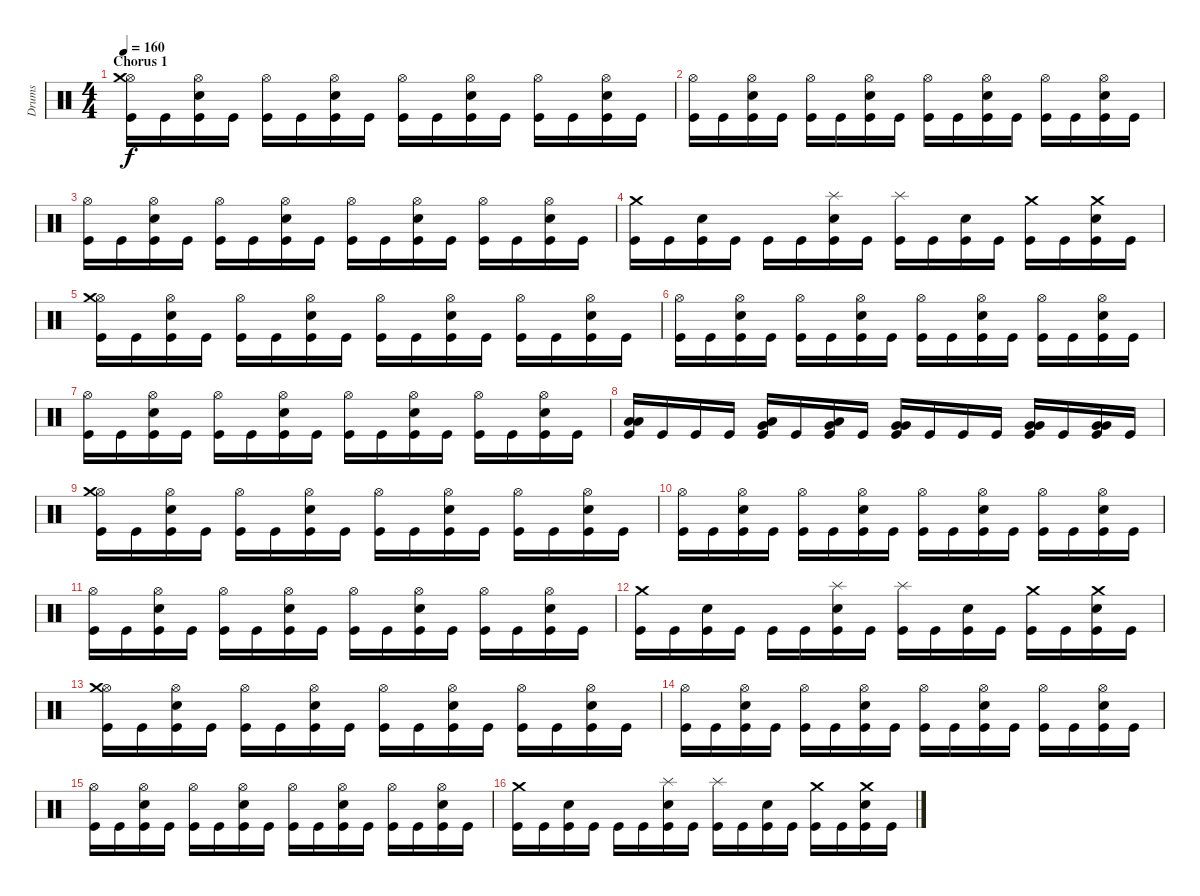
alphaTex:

\track ("Drums" "Drums") {instrument percussion}
\staff {score}
\articulation defaults
\ts (4 4)
\section ("" "Chorus 1")
\tempo 160
\clef neutral
\ks c
("Kick (hit)" "Hi-Hat (open)" "Crash medium (hit)").16{dy f} "Kick (hit)".16 ("Electric Snare (hit)" "Kick (hit)" "Hi-Hat (open)").16 "Kick (hit)".16 ("Kick (hit)" "Hi-Hat (open)").16 "Kick (hit)".16 ("Electric Snare (hit)" "Kick (hit)" "Hi-Hat (open)").16 "Kick (hit)".16 ("Kick (hit)" "Hi-Hat (open)").16 "Kick (hit)".16 ("Electric Snare (hit)" "Kick (hit)" "Hi-Hat (open)").16 "Kick (hit)".16 ("Kick (hit)" "Hi-Hat (open)").16 "Kick (hit)".16 ("Electric Snare (hit)" "Kick (hit)" "Hi-Hat (open)").16 "Kick (hit)".16 |
("Kick (hit)" "Hi-Hat (open)").16 "Kick (hit)".16 ("Electric Snare (hit)" "Kick (hit)" "Hi-Hat (open)").16 "Kick (hit)".16 ("Kick (hit)" "Hi-Hat (open)").16 "Kick (hit)".16 ("Electric Snare (hit)" "Kick (hit)" "Hi-Hat (open)").16 "Kick (hit)".16 ("Kick (hit)" "Hi-Hat (open)").16 "Kick (hit)".16 ("Electric Snare (hit)" "Kick (hit)" "Hi-Hat (open)").16 "Kick (hit)".16 ("Kick (hit)" "Hi-Hat (open)").16 "Kick (hit)".16 ("Electric Snare (hit)" "Kick (hit)" "Hi-Hat (open)").16 "Kick (hit)".16 |
("Kick (hit)" "Hi-Hat (open)").16 "Kick (hit)".16 ("Electric Snare (hit)" "Kick (hit)" "Hi-Hat (open)").16 "Kick (hit)".16 ("Kick (hit)" "Hi-Hat (open)").16 "Kick (hit)".16 ("Electric Snare (hit)" "Kick (hit)" "Hi-Hat (open)").16 "Kick (hit)".16 ("Kick (hit)" "Hi-Hat (open)").16 "Kick (hit)".16 ("Electric Snare (hit)" "Kick (hit)" "Hi-Hat (open)").16 "Kick (hit)".16 ("Kick (hit)" "Hi-Hat (open)").16 "Kick (hit)".16 ("Electric Snare (hit)" "Kick (hit)" "Hi-Hat (open)").16 "Kick (hit)".16 |
("Kick (hit)" "Crash medium (hit)").16 "Kick (hit)".16 ("Electric Snare (hit)" "Kick (hit)").16 "Kick (hit)".16 "Kick (hit)".16 "Kick (hit)".16 ("Electric Snare (hit)" "Kick (hit)" "Splash (hit)").16 "Kick (hit)".16 ("Kick (hit)" "Splash (hit)").16 "Kick (hit)".16 ("Electric Snare (hit)" "Kick (hit)").16 "Kick (hit)".16 ("Kick (hit)" "Crash medium (hit)").16 "Kick (hit)".16 ("Electric Snare (hit)" "Kick (hit)" "Crash medium (hit)").16 "Kick (hit)".16 |
("Kick (hit)" "Hi-Hat (open)" "Crash medium (hit)").16 "Kick (hit)".16 ("Electric Snare (hit)" "Kick (hit)" "Hi-Hat (open)").16 "Kick (hit)".16 ("Kick (hit)" "Hi-Hat (open)").16 "Kick (hit)".16 ("Electric Snare (hit)" "Kick (hit)" "Hi-Hat (open)").16 "Kick (hit)".16 ("Kick (hit)" "Hi-Hat (open)").16 "Kick (hit)".16 ("Electric Snare (hit)" "Kick (hit)" "Hi-Hat (open)").16 "Kick (hit)".16 ("Kick (hit)" "Hi-Hat (open)").16 "Kick (hit)".16 ("Electric Snare (hit)" "Kick (hit)" "Hi-Hat (open)").16 "Kick (hit)".16 |
("Kick (hit)" "Hi-Hat (open)").16 "Kick (hit)".16 ("Electric Snare (hit)" "Kick (hit)" "Hi-Hat (open)").16 "Kick (hit)".16 ("Kick (hit)" "Hi-Hat (open)").16 "Kick (hit)".16 ("Electric Snare (hit)" "Kick (hit)" "Hi-Hat (open)").16 "Kick (hit)".16 ("Kick (hit)" "Hi-Hat (open)").16 "Kick (hit)".16 ("Electric Snare (hit)" "Kick (hit)" "Hi-Hat (open)").16 "Kick (hit)".16 ("Kick (hit)" "Hi-Hat (open)").16 "Kick (hit)".16 ("Electric Snare (hit)" "Kick (hit)" "Hi-Hat (open)").16 "Kick (hit)".16 |
("Kick (hit)" "Hi-Hat (open)").16 "Kick (hit)".16 ("Electric Snare (hit)" "Kick (hit)" "Hi-Hat (open)").16 "Kick (hit)".16 ("Kick (hit)" "Hi-Hat (open)").16 "Kick (hit)".16 ("Electric Snare (hit)" "Kick (hit)" "Hi-Hat (open)").16 "Kick (hit)".16 ("Kick (hit)" "Hi-Hat (open)").16 "Kick (hit)".16 ("Electric Snare (hit)" "Kick (hit)" "Hi-Hat (open)").16 "Kick (hit)".16 ("Kick (hit)" "Hi-Hat (open)").16 "Kick (hit)".16 ("Electric Snare (hit)" "Kick (hit)" "Hi-Hat (open)").16 "Kick (hit)".16 |
("Low Floor Tom (hit)" "Kick (hit)" "Low Floor Tom (hit)").16 "Kick (hit)".16 "Kick (hit)".16 "Kick (hit)".16 ("Low Floor Tom (hit)" "Kick (hit)" "Very Low Tom (hit)").16 "Kick (hit)".16 ("Low Floor Tom (hit)" "Kick (hit)" "Very Low Tom (hit)").16 "Kick (hit)".16 ("Very Low Tom (hit)" "Kick (hit)" "Very Low Tom (hit)").16 "Kick (hit)".16 "Kick (hit)".16 "Kick (hit)".16 ("Very Low Tom (hit)" "Kick (hit)" "Very Low Tom (hit)").16 "Kick (hit)".16 ("Very Low Tom (hit)" "Kick (hit)" "Very Low Tom (hit)").16 "Kick (hit)".16 |
("Kick (hit)" "Hi-Hat (open)" "Crash medium (hit)").16 "Kick (hit)".16 ("Electric Snare (hit)" "Kick (hit)" "Hi-Hat (open)").16 "Kick (hit)".16 ("Kick (hit)" "Hi-Hat (open)").16 "Kick (hit)".16 ("Electric Snare (hit)" "Kick (hit)" "Hi-Hat (open)").16 "Kick (hit)".16 ("Kick (hit)" "Hi-Hat (open)").16 "Kick (hit)".16 ("Electric Snare (hit)" "Kick (hit)" "Hi-Hat (open)").16 "Kick (hit)".16 ("Kick (hit)" "Hi-Hat (open)").16 "Kick (hit)".16 ("Electric Snare (hit)" "Kick (hit)" "Hi-Hat (open)").16 "Kick (hit)".16 |
("Kick (hit)" "Hi-Hat (open)").16 "Kick (hit)".16 ("Electric Snare (hit)" "Kick (hit)" "Hi-Hat (open)").16 "Kick (hit)".16 ("Kick (hit)" "Hi-Hat (open)").16 "Kick (hit)".16 ("Electric Snare (hit)" "Kick (hit)" "Hi-Hat (open)").16 "Kick (hit)".16 ("Kick (hit)" "Hi-Hat (open)").16 "Kick (hit)".16 ("Electric Snare (hit)" "Kick (hit)" "Hi-Hat (open)").16 "Kick (hit)".16 ("Kick (hit)" "Hi-Hat (open)").16 "Kick (hit)".16 ("Electric Snare (hit)" "Kick (hit)" "Hi-Hat (open)").16 "Kick (hit)".16 |
("Kick (hit)" "Hi-Hat (open)").16 "Kick (hit)".16 ("Electric Snare (hit)" "Kick (hit)" "Hi-Hat (open)").16 "Kick (hit)".16 ("Kick (hit)" "Hi-Hat (open)").16 "Kick (hit)".16 ("Electric Snare (hit)" "Kick (hit)" "Hi-Hat (open)").16 "Kick (hit)".16 ("Kick (hit)" "Hi-Hat (open)").16 "Kick (hit)".16 ("Electric Snare (hit)" "Kick (hit)" "Hi-Hat (open)").16 "Kick (hit)".16 ("Kick (hit)" "Hi-Hat (open)").16 "Kick (hit)".16 ("Electric Snare (hit)" "Kick (hit)" "Hi-Hat (open)").16 "Kick (hit)".16 |
("Kick (hit)" "Crash medium (hit)").16 "Kick (hit)".16 ("Electric Snare (hit)" "Kick (hit)").16 "Kick (hit)".16 "Kick (hit)".16 "Kick (hit)".16 ("Electric Snare (hit)" "Kick (hit)" "Splash (hit)").16 "Kick (hit)".16 ("Kick (hit)" "Splash (hit)").16 "Kick (hit)".16 ("Electric Snare (hit)" "Kick (hit)").16 "Kick (hit)".16 ("Kick (hit)" "Crash medium (hit)").16 "Kick (hit)".16 ("Electric Snare (hit)" "Kick (hit)" "Crash medium (hit)").16 "Kick (hit)".16 |
("Kick (hit)" "Hi-Hat (open)" "Crash medium (hit)").16 "Kick (hit)".16 ("Electric Snare (hit)" "Kick (hit)" "Hi-Hat (open)").16 "Kick (hit)".16 ("Kick (hit)" "Hi-Hat (open)").16 "Kick (hit)".16 ("Electric Snare (hit)" "Kick (hit)" "Hi-Hat (open)").16 "Kick (hit)".16 ("Kick (hit)" "Hi-Hat (open)").16 "Kick (hit)".16 ("Electric Snare (hit)" "Kick (hit)" "Hi-Hat (open)").16 "Kick (hit)".16 ("Kick (hit)" "Hi-Hat (open)").16 "Kick (hit)".16 ("Electric Snare (hit)" "Kick (hit)" "Hi-Hat (open)").16 "Kick (hit)".16 |
("Kick (hit)" "Hi-Hat (open)").16 "Kick (hit)".16 ("Electric Snare (hit)" "Kick (hit)" "Hi-Hat (open)").16 "Kick (hit)".16 ("Kick (hit)" "Hi-Hat (open)").16 "Kick (hit)".16 ("Electric Snare (hit)" "Kick (hit)" "Hi-Hat (open)").16 "Kick (hit)".16 ("Kick (hit)" "Hi-Hat (open)").16 "Kick (hit)".16 ("Electric Snare (hit)" "Kick (hit)" "Hi-Hat (open)").16 "Kick (hit)".16 ("Kick (hit)" "Hi-Hat (open)").16 "Kick (hit)".16 ("Electric Snare (hit)" "Kick (hit)" "Hi-Hat (open)").16 "Kick (hit)".16 |
("Kick (hit)" "Hi-Hat (open)").16 "Kick (hit)".16 ("Electric Snare (hit)" "Kick (hit)" "Hi-Hat (open)").16 "Kick (hit)".16 ("Kick (hit)" "Hi-Hat (open)").16 "Kick (hit)".16 ("Electric Snare (hit)" "Kick (hit)" "Hi-Hat (open)").16 "Kick (hit)".16 ("Kick (hit)" "Hi-Hat (open)").16 "Kick (hit)".16 ("Electric Snare (hit)" "Kick (hit)" "Hi-Hat (open)").16 "Kick (hit)".16 ("Kick (hit)" "Hi-Hat (open)").16 "Kick (hit)".16 ("Electric Snare (hit)" "Kick (hit)" "Hi-Hat (open)").16 "Kick (hit)".16 |
("Kick (hit)" "Crash medium (hit)").16 "Kick (hit)".16 ("Electric Snare (hit)" "Kick (hit)").16 "Kick (hit)".16 "Kick (hit)".16 "Kick (hit)".16 ("Electric Snare (hit)" "Kick (hit)" "Splash (hit)").16 "Kick (hit)".16 ("Kick (hit)" "Splash (hit)").16 "Kick (hit)".16 ("Electric Snare (hit)" "Kick (hit)").16 "Kick (hit)".16 ("Kick (hit)" "Crash medium (hit)").16 "Kick (hit)".16 ("Electric Snare (hit)" "Kick (hit)" "Crash medium (hit)").16 "Kick (hit)".16
